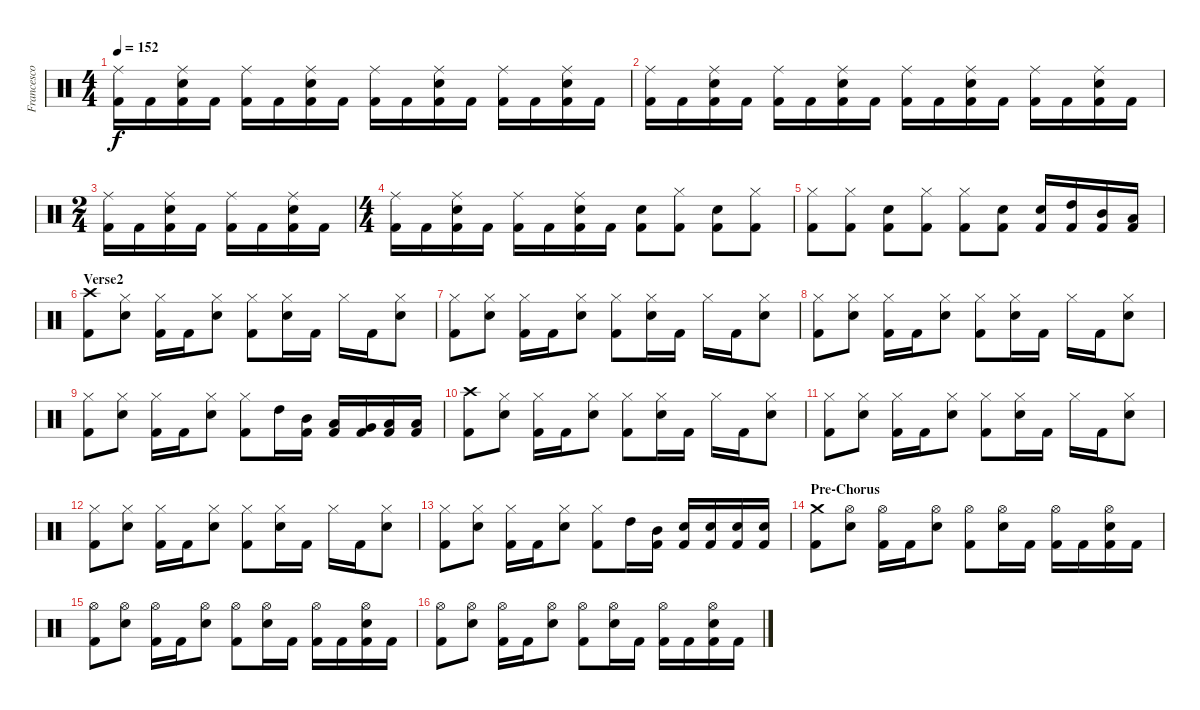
\track ("Francesco Tresa" "Francesco ") {instrument percussion}
\staff {score}
\articulation defaults
\ts (4 4)
\tempo 152
\clef neutral
\ks c
("Kick (hit) 2" "Ride (middle)").16{dy f} "Kick (hit) 2".16 ("Kick (hit) 2" "Snare (hit) 2" "Ride (middle)").16 "Kick (hit) 2".16 ("Kick (hit) 2" "Ride (middle)").16 "Kick (hit) 2".16 ("Kick (hit) 2" "Snare (hit) 2" "Ride (middle)").16 "Kick (hit) 2".16 ("Kick (hit) 2" "Ride (middle)").16 "Kick (hit) 2".16 ("Kick (hit) 2" "Snare (hit) 2" "Ride (middle)").16 "Kick (hit) 2".16 ("Kick (hit) 2" "Ride (middle)").16 "Kick (hit) 2".16 ("Kick (hit) 2" "Snare (hit) 2" "Ride (middle)").16 "Kick (hit) 2".16 |
("Kick (hit) 2" "Ride (middle)").16 "Kick (hit) 2".16 ("Kick (hit) 2" "Snare (hit) 2" "Ride (middle)").16 "Kick (hit) 2".16 ("Kick (hit) 2" "Ride (middle)").16 "Kick (hit) 2".16 ("Kick (hit) 2" "Snare (hit) 2" "Ride (middle)").16 "Kick (hit) 2".16 ("Kick (hit) 2" "Ride (middle)").16 "Kick (hit) 2".16 ("Kick (hit) 2" "Snare (hit) 2" "Ride (middle)").16 "Kick (hit) 2".16 ("Kick (hit) 2" "Ride (middle)").16 "Kick (hit) 2".16 ("Kick (hit) 2" "Snare (hit) 2" "Ride (middle)").16 "Kick (hit) 2".16 |
\ts (2 4)
("Kick (hit) 2" "Ride (middle)").16 "Kick (hit) 2".16 ("Kick (hit) 2" "Snare (hit) 2" "Ride (middle)").16 "Kick (hit) 2".16 ("Kick (hit) 2" "Ride (middle)").16 "Kick (hit) 2".16 ("Kick (hit) 2" "Snare (hit) 2" "Ride (middle)").16 "Kick (hit) 2".16 |
\ts (4 4)
("Kick (hit) 2" "Ride (middle)").16 "Kick (hit) 2".16 ("Kick (hit) 2" "Snare (hit) 2" "Ride (middle)").16 "Kick (hit) 2".16 ("Kick (hit) 2" "Ride (middle)").16 "Kick (hit) 2".16 ("Kick (hit) 2" "Snare (hit) 2" "Ride (middle)").16 "Kick (hit) 2".16 ("Kick (hit) 2" "Snare (hit) 2").8 ("Kick (hit) 2" "Hi-Hat (closed)").8 ("Kick (hit) 2" "Snare (hit) 2").8 ("Kick (hit) 2" "Hi-Hat (closed)").8 |
("Kick (hit) 2" "Hi-Hat (closed)").8 ("Kick (hit) 2" "Hi-Hat (closed)").8 ("Kick (hit) 2" "Snare (hit) 2").8 ("Kick (hit) 2" "Hi-Hat (closed)").8 ("Kick (hit) 2" "Hi-Hat (closed)").8 ("Kick (hit) 2" "Snare (hit) 2").8 ("Kick (hit) 2" "Snare (hit) 2").16 ("Kick (hit) 2" "High Tom (hit)").16 ("Kick (hit) 2" "Mid Tom (hit)").16 ("Kick (hit) 2" "Low Tom (hit)").16 |
\section ("" "Verse2")
("Kick (hit) 2" "Crash high (hit)").8 ("Snare (hit) 2" "Hi-Hat (closed)").8 ("Kick (hit) 2" "Hi-Hat (closed)").16 "Kick (hit) 2".16 ("Snare (hit) 2" "Hi-Hat (closed)").8 ("Kick (hit) 2" "Hi-Hat (closed)").8 ("Snare (hit) 2" "Hi-Hat (closed)").16 "Kick (hit) 2".16 "Hi-Hat (closed)".16 "Kick (hit) 2".16 ("Snare (hit) 2" "Hi-Hat (closed)").8 |
("Kick (hit) 2" "Hi-Hat (closed)").8 ("Snare (hit) 2" "Hi-Hat (closed)").8 ("Kick (hit) 2" "Hi-Hat (closed)").16 "Kick (hit) 2".16 ("Snare (hit) 2" "Hi-Hat (closed)").8 ("Kick (hit) 2" "Hi-Hat (closed)").8 ("Snare (hit) 2" "Hi-Hat (closed)").16 "Kick (hit) 2".16 "Hi-Hat (closed)".16 "Kick (hit) 2".16 ("Snare (hit) 2" "Hi-Hat (closed)").8 |
("Kick (hit) 2" "Hi-Hat (closed)").8 ("Snare (hit) 2" "Hi-Hat (closed)").8 ("Kick (hit) 2" "Hi-Hat (closed)").16 "Kick (hit) 2".16 ("Snare (hit) 2" "Hi-Hat (closed)").8 ("Kick (hit) 2" "Hi-Hat (closed)").8 ("Snare (hit) 2" "Hi-Hat (closed)").16 "Kick (hit) 2".16 "Hi-Hat (closed)".16 "Kick (hit) 2".16 ("Snare (hit) 2" "Hi-Hat (closed)").8 |
("Kick (hit) 2" "Hi-Hat (closed)").8 ("Snare (hit) 2" "Hi-Hat (closed)").8 ("Kick (hit) 2" "Hi-Hat (closed)").16 "Kick (hit) 2".16 ("Snare (hit) 2" "Hi-Hat (closed)").8 ("Kick (hit) 2" "Hi-Hat (closed)").8 "High Tom (hit)".16 ("Kick (hit) 2" "Mid Tom (hit)").16 ("Kick (hit) 2" "Low Tom (hit)").16 ("Kick (hit) 2" "Very Low Tom (hit)").16 ("Kick (hit) 2" "Low Floor Tom (hit)").16 ("Kick (hit) 2" "Low Floor Tom (hit)").16 |
("Kick (hit) 2" "Crash high (hit)").8 ("Snare (hit) 2" "Hi-Hat (closed)").8 ("Kick (hit) 2" "Hi-Hat (closed)").16 "Kick (hit) 2".16 ("Snare (hit) 2" "Hi-Hat (closed)").8 ("Kick (hit) 2" "Hi-Hat (closed)").8 ("Snare (hit) 2" "Hi-Hat (closed)").16 "Kick (hit) 2".16 "Hi-Hat (closed)".16 "Kick (hit) 2".16 ("Snare (hit) 2" "Hi-Hat (closed)").8 |
("Kick (hit) 2" "Hi-Hat (closed)").8 ("Snare (hit) 2" "Hi-Hat (closed)").8 ("Kick (hit) 2" "Hi-Hat (closed)").16 "Kick (hit) 2".16 ("Snare (hit) 2" "Hi-Hat (closed)").8 ("Kick (hit) 2" "Hi-Hat (closed)").8 ("Snare (hit) 2" "Hi-Hat (closed)").16 "Kick (hit) 2".16 "Hi-Hat (closed)".16 "Kick (hit) 2".16 ("Snare (hit) 2" "Hi-Hat (closed)").8 |
("Kick (hit) 2" "Hi-Hat (closed)").8 ("Snare (hit) 2" "Hi-Hat (closed)").8 ("Kick (hit) 2" "Hi-Hat (closed)").16 "Kick (hit) 2".16 ("Snare (hit) 2" "Hi-Hat (closed)").8 ("Kick (hit) 2" "Hi-Hat (closed)").8 ("Snare (hit) 2" "Hi-Hat (closed)").16 "Kick (hit) 2".16 "Hi-Hat (closed)".16 "Kick (hit) 2".16 ("Snare (hit) 2" "Hi-Hat (closed)").8 |
("Kick (hit) 2" "Hi-Hat (closed)").8 ("Snare (hit) 2" "Hi-Hat (closed)").8 ("Kick (hit) 2" "Hi-Hat (closed)").16 "Kick (hit) 2".16 ("Snare (hit) 2" "Hi-Hat (closed)").8 ("Kick (hit) 2" "Hi-Hat (closed)").8 "High Tom (hit)".16 ("Kick (hit) 2" "Mid Tom (hit)").16 ("Kick (hit) 2" "Snare (hit) 2").16 ("Kick (hit) 2" "Snare (hit) 2").16 ("Kick (hit) 2" "Snare (hit) 2").16 ("Kick (hit) 2" "Snare (hit) 2").16 |
\section ("" "Pre-Chorus")
("Kick (hit) 2" "Crash medium (hit)").8 ("Snare (hit) 2" "Hi-Hat (open)").8 ("Kick (hit) 2" "Hi-Hat (open)").16 "Kick (hit) 2".16 ("Snare (hit) 2" "Hi-Hat (open)").8 ("Kick (hit) 2" "Hi-Hat (open)").8 ("Snare (hit) 2" "Hi-Hat (open)").16 "Kick (hit) 2".16 ("Kick (hit) 2" "Hi-Hat (open)").16 "Kick (hit) 2".16 ("Kick (hit) 2" "Snare (hit) 2" "Hi-Hat (open)").16 "Kick (hit) 2".16 |
("Kick (hit) 2" "Hi-Hat (open)").8 ("Snare (hit) 2" "Hi-Hat (open)").8 ("Kick (hit) 2" "Hi-Hat (open)").16 "Kick (hit) 2".16 ("Snare (hit) 2" "Hi-Hat (open)").8 ("Kick (hit) 2" "Hi-Hat (open)").8 ("Snare (hit) 2" "Hi-Hat (open)").16 "Kick (hit) 2".16 ("Kick (hit) 2" "Hi-Hat (open)").16 "Kick (hit) 2".16 ("Kick (hit) 2" "Snare (hit) 2" "Hi-Hat (open)").16 "Kick (hit) 2".16 |
("Kick (hit) 2" "Hi-Hat (open)").8 ("Snare (hit) 2" "Hi-Hat (open)").8 ("Kick (hit) 2" "Hi-Hat (open)").16 "Kick (hit) 2".16 ("Snare (hit) 2" "Hi-Hat (open)").8 ("Kick (hit) 2" "Hi-Hat (open)").8 ("Snare (hit) 2" "Hi-Hat (open)").16 "Kick (hit) 2".16 ("Kick (hit) 2" "Hi-Hat (open)").16 "Kick (hit) 2".16 ("Kick (hit) 2" "Snare (hit) 2" "Hi-Hat (open)").16 "Kick (hit) 2".16
